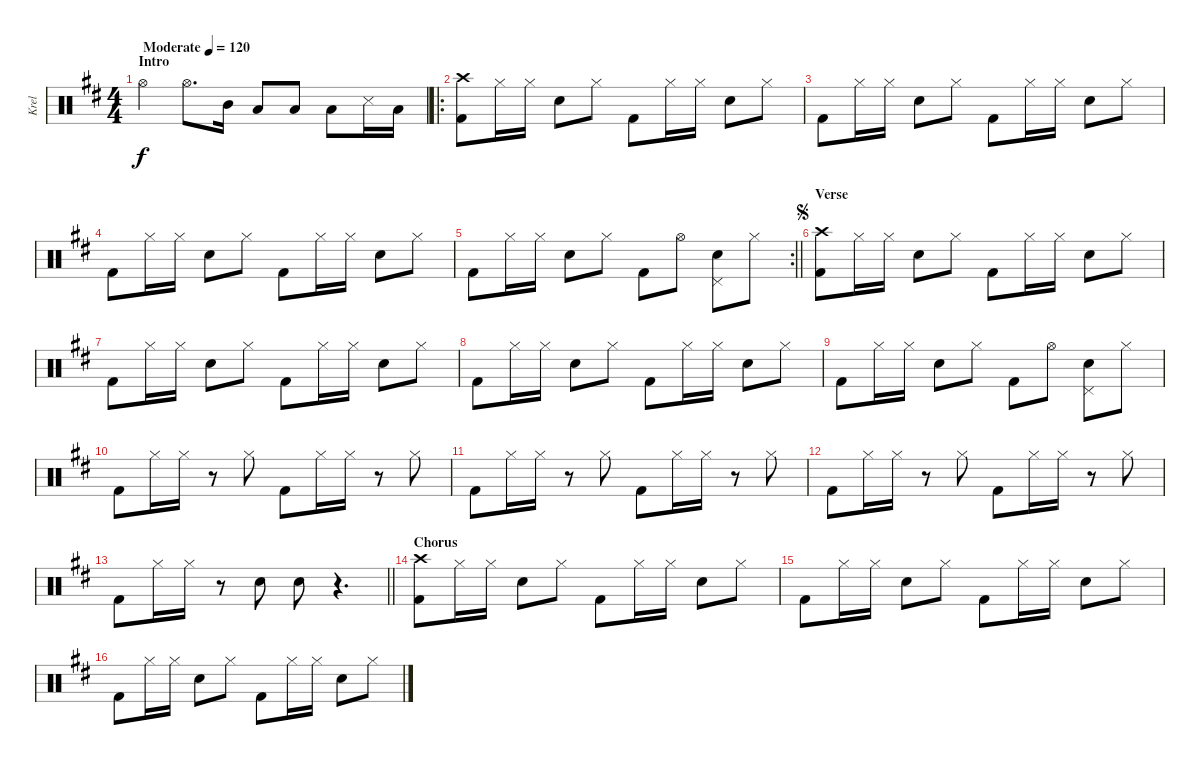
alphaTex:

\track ("Krel" "Krel") {instrument percussion}
\staff {score}
\articulation defaults
\ts (4 4)
\section ("" "Intro")
\tempo (120 "Moderate")
\clef neutral
\ks d "Hi-Hat (open)".4{dy f} "Hi-Hat (open)".8{d} "Mid Tom (hit)".16 "Low Tom (hit)".8 "Low Tom (hit)".8 "Low Tom (hit)".8 "Snare (side stick) 3".16 "Low Tom (hit)".16
|
\ro
("Crash high (hit)" "Kick (hit) 2").8 "Hi-Hat (closed)".16 "Hi-Hat (closed)".16 "Snare (hit) 2".8 "Hi-Hat (closed)".8 "Kick (hit) 2".8 "Hi-Hat (closed)".16 "Hi-Hat (closed)".16 "Snare (hit) 2".8 "Hi-Hat (closed)".8 |
"Kick (hit) 2".8 "Hi-Hat (closed)".16 "Hi-Hat (closed)".16 "Snare (hit) 2".8 "Hi-Hat (closed)".8 "Kick (hit) 2".8 "Hi-Hat (closed)".16 "Hi-Hat (closed)".16 "Snare (hit) 2".8 "Hi-Hat (closed)".8 |
"Kick (hit) 2".8 "Hi-Hat (closed)".16 "Hi-Hat (closed)".16 "Snare (hit) 2".8 "Hi-Hat (closed)".8 "Kick (hit) 2".8 "Hi-Hat (closed)".16 "Hi-Hat (closed)".16 "Snare (hit) 2".8 "Hi-Hat (closed)".8 |
\rc 2
\barLineRight lightlight "Kick (hit) 2".8 "Hi-Hat (closed)".16 "Hi-Hat (closed)".16 "Snare (hit) 2".8 "Hi-Hat (closed)".8 "Kick (hit) 2".8 "Hi-Hat (open)".8
("Pedal Hi-Hat (hit)" "Snare (hit) 2").8 "Hi-Hat (closed)".8 |
\section ("" "Verse")
\jump segno
("Crash high (hit)" "Kick (hit) 2").8 "Hi-Hat (closed)".16 "Hi-Hat (closed)".16 "Snare (hit) 2".8 "Hi-Hat (closed)".8 "Kick (hit) 2".8 "Hi-Hat (closed)".16 "Hi-Hat (closed)".16 "Snare (hit) 2".8 "Hi-Hat (closed)".8 |
"Kick (hit) 2".8 "Hi-Hat (closed)".16 "Hi-Hat (closed)".16 "Snare (hit) 2".8 "Hi-Hat (closed)".8 "Kick (hit) 2".8 "Hi-Hat (closed)".16 "Hi-Hat (closed)".16 "Snare (hit) 2".8 "Hi-Hat (closed)".8 |
"Kick (hit) 2".8 "Hi-Hat (closed)".16 "Hi-Hat (closed)".16 "Snare (hit) 2".8 "Hi-Hat (closed)".8 "Kick (hit) 2".8 "Hi-Hat (closed)".16 "Hi-Hat (closed)".16 "Snare (hit) 2".8 "Hi-Hat (closed)".8 |
"Kick (hit) 2".8 "Hi-Hat (closed)".16 "Hi-Hat (closed)".16 "Snare (hit) 2".8 "Hi-Hat (closed)".8 "Kick (hit) 2".8 "Hi-Hat (open)".8 ("Pedal Hi-Hat (hit)" "Snare (hit) 2").8 "Hi-Hat (closed)".8 |
"Kick (hit) 2".8 "Hi-Hat (closed)".16 "Hi-Hat (closed)".16 r.8 "Hi-Hat (closed)".8 "Kick (hit) 2".8 "Hi-Hat (closed)".16 "Hi-Hat (closed)".16 r.8 "Hi-Hat (closed)".8 |
"Kick (hit) 2".8 "Hi-Hat (closed)".16 "Hi-Hat (closed)".16 r.8 "Hi-Hat (closed)".8 "Kick (hit) 2".8 "Hi-Hat (closed)".16 "Hi-Hat (closed)".16 r.8 "Hi-Hat (closed)".8 |
"Kick (hit) 2".8 "Hi-Hat (closed)".16 "Hi-Hat (closed)".16 r.8 "Hi-Hat (closed)".8 "Kick (hit) 2".8 "Hi-Hat (closed)".16 "Hi-Hat (closed)".16 r.8 "Hi-Hat (closed)".8 |
\barLineRight lightlight "Kick (hit) 2".8 "Hi-Hat (closed)".16 "Hi-Hat (closed)".16
r.8 "Snare (hit) 2".8 "Snare (hit) 2".8 r.4{d} |
\section ("" "Chorus")
("Crash high (hit)" "Kick (hit) 2").8 "Hi-Hat (closed)".16 "Hi-Hat (closed)".16 "Snare (hit) 2".8 "Hi-Hat (closed)".8 "Kick (hit) 2".8 "Hi-Hat (closed)".16 "Hi-Hat (closed)".16 "Snare (hit) 2".8 "Hi-Hat (closed)".8 |
"Kick (hit) 2".8 "Hi-Hat (closed)".16 "Hi-Hat (closed)".16 "Snare (hit) 2".8 "Hi-Hat (closed)".8 "Kick (hit) 2".8 "Hi-Hat (closed)".16 "Hi-Hat (closed)".16 "Snare (hit) 2".8 "Hi-Hat (closed)".8 |
"Kick (hit) 2".8 "Hi-Hat (closed)".16 "Hi-Hat (closed)".16 "Snare (hit) 2".8 "Hi-Hat (closed)".8 "Kick (hit) 2".8 "Hi-Hat (closed)".16 "Hi-Hat (closed)".16 "Snare (hit) 2".8 "Hi-Hat (closed)".8
